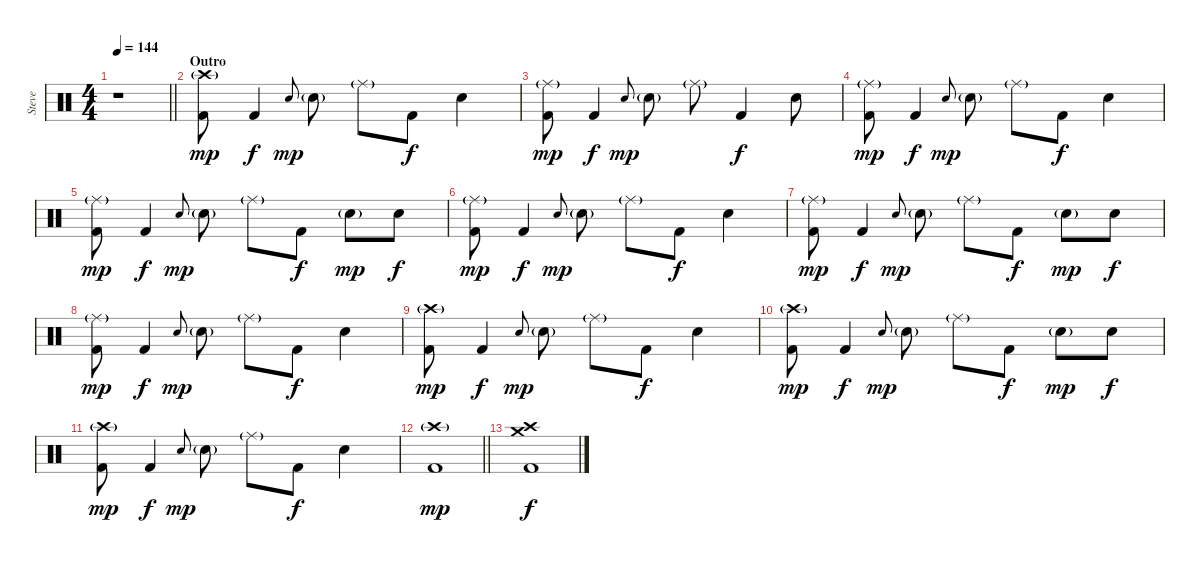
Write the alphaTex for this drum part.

\track ("Steve" "Steve") {instrument percussion}
\staff {score}
\articulation defaults
\ts (4 4)
\tempo 144
\clef neutral
\barLineRight lightlight
\ks c
r.1{dy mp} |
\section ("" "Outro")
("Crash high (hit)"{g} "Kick (hit) 2").8 "Kick (hit) 2".4{dy f} "Electric Snare (hit)".8{gr onbeat dy mp} "Electric Snare (hit)"{g}.8 "Ride (middle)"{g}.8 "Kick (hit) 2".8{dy f} "Electric Snare (hit)".4 |
("Ride (middle)"{g} "Kick (hit) 2").8{dy mp} "Kick (hit) 2".4{dy f} "Electric Snare (hit)".8{gr onbeat dy mp} "Electric Snare (hit)"{g}.8 "Ride (middle)"{g}.8 "Kick (hit) 2".4{dy f} "Electric Snare (hit)".8 |
("Ride (middle)"{g} "Kick (hit) 2").8{dy mp} "Kick (hit) 2".4{dy f} "Electric Snare (hit)".8{gr onbeat dy mp} "Electric Snare (hit)"{g}.8 "Ride (middle)"{g}.8 "Kick (hit) 2".8{dy f} "Electric Snare (hit)".4 |
("Ride (middle)"{g} "Kick (hit) 2").8{dy mp} "Kick (hit) 2".4{dy f} "Electric Snare (hit)".8{gr onbeat dy mp} "Electric Snare (hit)"{g}.8 "Ride (middle)"{g}.8 "Kick (hit) 2".8{dy f} "Electric Snare (hit)"{g}.8{dy mp} "Electric Snare (hit)".8{dy f} |
("Ride (middle)"{g} "Kick (hit) 2").8{dy mp} "Kick (hit) 2".4{dy f} "Electric Snare (hit)".8{gr onbeat dy mp} "Electric Snare (hit)"{g}.8 "Ride (middle)"{g}.8 "Kick (hit) 2".8{dy f} "Electric Snare (hit)".4 |
("Ride (middle)"{g} "Kick (hit) 2").8{dy mp} "Kick (hit) 2".4{dy f} "Electric Snare (hit)".8{gr onbeat dy mp} "Electric Snare (hit)"{g}.8 "Ride (middle)"{g}.8 "Kick (hit) 2".8{dy f} "Electric Snare (hit)"{g}.8{dy mp} "Electric Snare (hit)".8{dy f} |
("Ride (middle)"{g} "Kick (hit) 2").8{dy mp} "Kick (hit) 2".4{dy f} "Electric Snare (hit)".8{gr onbeat dy mp} "Electric Snare (hit)"{g}.8 "Ride (middle)"{g}.8 "Kick (hit) 2".8{dy f} "Electric Snare (hit)".4 |
("Crash high (hit)"{g} "Kick (hit) 2").8{dy mp} "Kick (hit) 2".4{dy f} "Electric Snare (hit)".8{gr onbeat dy mp} "Electric Snare (hit)"{g}.8 "Ride (middle)"{g}.8 "Kick (hit) 2".8{dy f} "Electric Snare (hit)".4 |
("Crash high (hit)"{g} "Kick (hit) 2").8{dy mp} "Kick (hit) 2".4{dy f} "Electric Snare (hit)".8{gr onbeat dy mp} "Electric Snare (hit)"{g}.8 "Ride (middle)"{g}.8 "Kick (hit) 2".8{dy f} "Electric Snare (hit)"{g}.8{dy mp} "Electric Snare (hit)".8{dy f} |
("Crash high (hit)"{g} "Kick (hit) 2").8{dy mp} "Kick (hit) 2".4{dy f} "Electric Snare (hit)".8{gr onbeat dy mp} "Electric Snare (hit)"{g}.8 "Ride (middle)"{g}.8 "Kick (hit) 2".8{dy f} "Electric Snare (hit)".4 |
\barLineRight lightlight
("Crash high (hit)"{g} "Kick (hit) 2").1{dy mp} |
("Crash high (hit)" "Crash medium (hit)" "Kick (hit) 2").1{dy f}
